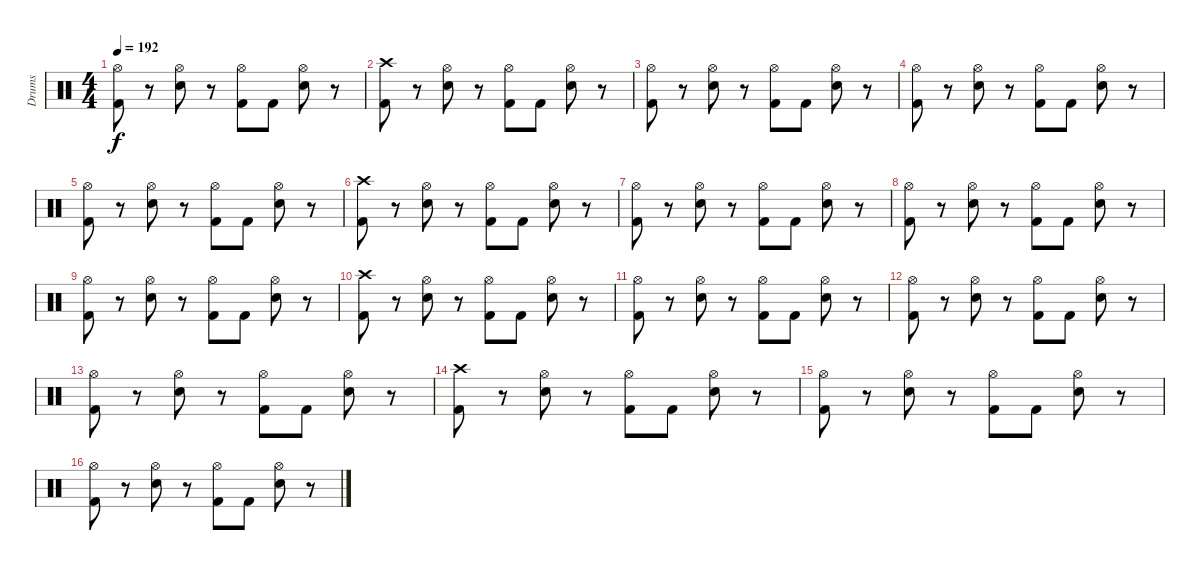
\track ("Drums" "Drums") {instrument percussion}
\staff {score}
\articulation defaults
\ts (4 4)
\tempo 192
\clef neutral
\ks c
("Hi-Hat (open)" "Kick (hit) 2").8{dy f} r.8 ("Hi-Hat (open)" "Electric Snare (hit)").8 r.8 ("Hi-Hat (open)" "Kick (hit) 2").8 "Kick (hit) 2".8 ("Hi-Hat (open)" "Electric Snare (hit)").8 r.8 |
("Crash high (hit)" "Kick (hit) 2").8 r.8 ("Hi-Hat (open)" "Electric Snare (hit)").8 r.8 ("Hi-Hat (open)" "Kick (hit) 2").8 "Kick (hit) 2".8 ("Hi-Hat (open)" "Electric Snare (hit)").8 r.8 |
("Hi-Hat (open)" "Kick (hit) 2").8 r.8 ("Hi-Hat (open)" "Electric Snare (hit)").8 r.8 ("Hi-Hat (open)" "Kick (hit) 2").8 "Kick (hit) 2".8 ("Hi-Hat (open)" "Electric Snare (hit)").8 r.8 |
("Hi-Hat (open)" "Kick (hit) 2").8 r.8 ("Hi-Hat (open)" "Electric Snare (hit)").8 r.8 ("Hi-Hat (open)" "Kick (hit) 2").8 "Kick (hit) 2".8 ("Hi-Hat (open)" "Electric Snare (hit)").8 r.8 |
("Hi-Hat (open)" "Kick (hit) 2").8 r.8 ("Hi-Hat (open)" "Electric Snare (hit)").8 r.8 ("Hi-Hat (open)" "Kick (hit) 2").8 "Kick (hit) 2".8 ("Hi-Hat (open)" "Electric Snare (hit)").8 r.8 |
("Crash high (hit)" "Kick (hit) 2").8 r.8 ("Hi-Hat (open)" "Electric Snare (hit)").8 r.8 ("Hi-Hat (open)" "Kick (hit) 2").8 "Kick (hit) 2".8 ("Hi-Hat (open)" "Electric Snare (hit)").8 r.8 |
("Hi-Hat (open)" "Kick (hit) 2").8 r.8 ("Hi-Hat (open)" "Electric Snare (hit)").8 r.8 ("Hi-Hat (open)" "Kick (hit) 2").8 "Kick (hit) 2".8 ("Hi-Hat (open)" "Electric Snare (hit)").8 r.8 |
("Hi-Hat (open)" "Kick (hit) 2").8 r.8 ("Hi-Hat (open)" "Electric Snare (hit)").8 r.8 ("Hi-Hat (open)" "Kick (hit) 2").8 "Kick (hit) 2".8 ("Hi-Hat (open)" "Electric Snare (hit)").8 r.8 |
("Hi-Hat (open)" "Kick (hit) 2").8 r.8 ("Hi-Hat (open)" "Electric Snare (hit)").8 r.8 ("Hi-Hat (open)" "Kick (hit) 2").8 "Kick (hit) 2".8 ("Hi-Hat (open)" "Electric Snare (hit)").8 r.8 |
("Crash high (hit)" "Kick (hit) 2").8 r.8 ("Hi-Hat (open)" "Electric Snare (hit)").8 r.8 ("Hi-Hat (open)" "Kick (hit) 2").8 "Kick (hit) 2".8 ("Hi-Hat (open)" "Electric Snare (hit)").8 r.8 |
("Hi-Hat (open)" "Kick (hit) 2").8 r.8 ("Hi-Hat (open)" "Electric Snare (hit)").8 r.8 ("Hi-Hat (open)" "Kick (hit) 2").8 "Kick (hit) 2".8 ("Hi-Hat (open)" "Electric Snare (hit)").8 r.8 |
("Hi-Hat (open)" "Kick (hit) 2").8 r.8 ("Hi-Hat (open)" "Electric Snare (hit)").8 r.8 ("Hi-Hat (open)" "Kick (hit) 2").8 "Kick (hit) 2".8 ("Hi-Hat (open)" "Electric Snare (hit)").8 r.8 |
("Hi-Hat (open)" "Kick (hit) 2").8 r.8 ("Hi-Hat (open)" "Electric Snare (hit)").8 r.8 ("Hi-Hat (open)" "Kick (hit) 2").8 "Kick (hit) 2".8 ("Hi-Hat (open)" "Electric Snare (hit)").8 r.8 |
("Crash high (hit)" "Kick (hit) 2").8 r.8 ("Hi-Hat (open)" "Electric Snare (hit)").8 r.8 ("Hi-Hat (open)" "Kick (hit) 2").8 "Kick (hit) 2".8 ("Hi-Hat (open)" "Electric Snare (hit)").8 r.8 |
("Hi-Hat (open)" "Kick (hit) 2").8 r.8 ("Hi-Hat (open)" "Electric Snare (hit)").8 r.8 ("Hi-Hat (open)" "Kick (hit) 2").8 "Kick (hit) 2".8 ("Hi-Hat (open)" "Electric Snare (hit)").8 r.8 |
("Hi-Hat (open)" "Kick (hit) 2").8 r.8 ("Hi-Hat (open)" "Electric Snare (hit)").8 r.8 ("Hi-Hat (open)" "Kick (hit) 2").8 "Kick (hit) 2".8 ("Hi-Hat (open)" "Electric Snare (hit)").8 r.8
